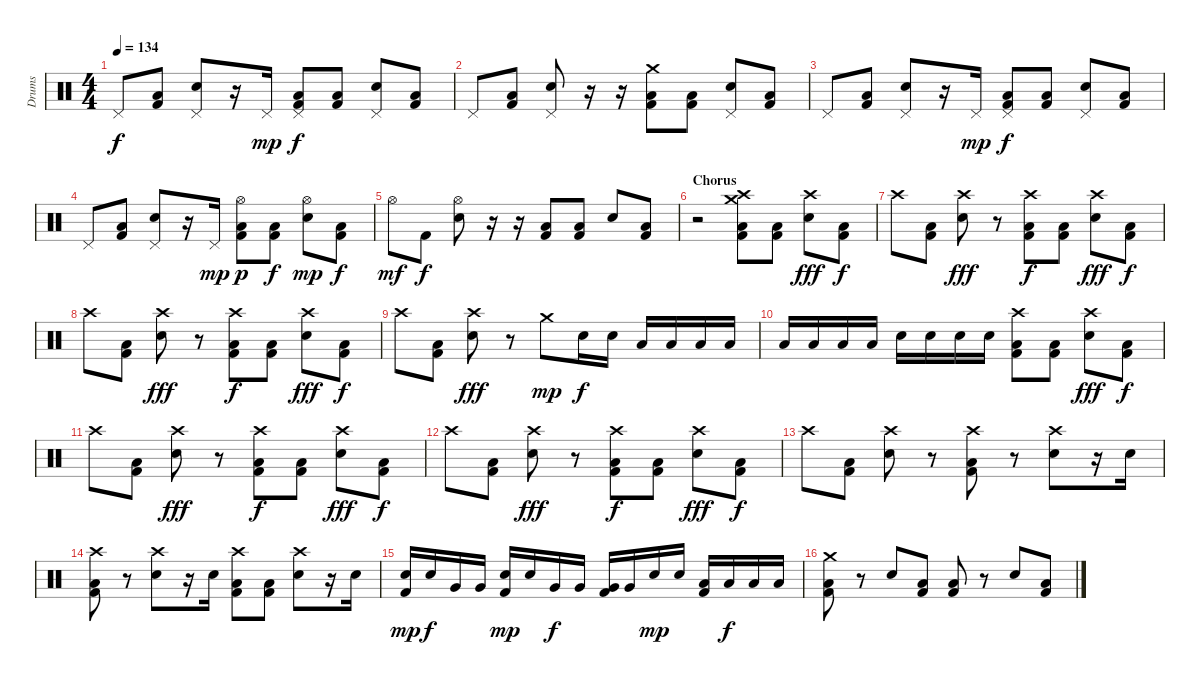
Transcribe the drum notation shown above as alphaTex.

\track ("Drums" "Drums") {instrument percussion}
\staff {score}
\articulation defaults
\ts (4 4)
\tempo 134
\clef neutral
\ks c "Pedal Hi-Hat (hit)".8{dy f}
("Kick (hit) 2" "Low Floor Tom (hit)").8 ("Pedal Hi-Hat (hit)" "Snare (hit) 2").8 r.16 "Pedal Hi-Hat (hit)".16{dy mp} ("Pedal Hi-Hat (hit)" "Kick (hit) 2" "Low Floor Tom (hit)").8{dy f} ("Kick (hit) 2" "Low Floor Tom (hit)").8 ("Pedal Hi-Hat (hit)" "Snare (hit) 2").8 ("Kick (hit) 2" "Low Floor Tom (hit)").8 |
"Pedal Hi-Hat (hit)".8 ("Kick (hit) 2" "Low Floor Tom (hit)").8 ("Pedal Hi-Hat (hit)" "Snare (hit) 2").8 r.16 r.16 ("Crash medium (hit)" "Kick (hit) 2" "Low Floor Tom (hit)").8 ("Kick (hit) 2" "Low Floor Tom (hit)").8 ("Pedal Hi-Hat (hit)" "Snare (hit) 2").8 ("Kick (hit) 2" "Low Floor Tom (hit)").8 |
"Pedal Hi-Hat (hit)".8 ("Kick (hit) 2" "Low Floor Tom (hit)").8 ("Pedal Hi-Hat (hit)" "Snare (hit) 2").8 r.16 "Pedal Hi-Hat (hit)".16{dy mp} ("Pedal Hi-Hat (hit)" "Kick (hit) 2" "Low Floor Tom (hit)").8{dy f} ("Kick (hit) 2" "Low Floor Tom (hit)").8 ("Pedal Hi-Hat (hit)" "Snare (hit) 2").8 ("Kick (hit) 2" "Low Floor Tom (hit)").8 |
"Pedal Hi-Hat (hit)".8 ("Kick (hit) 2" "Low Floor Tom (hit)").8 ("Pedal Hi-Hat (hit)" "Snare (hit) 2").8 r.16 "Pedal Hi-Hat (hit)".16{dy mp} ("Hi-Hat (open)" "Kick (hit) 2" "Low Floor Tom (hit)").8{dy p} ("Kick (hit) 2" "Low Floor Tom (hit)").8{dy f} ("Hi-Hat (open)" "Snare (hit) 2").8{dy mp} ("Kick (hit) 2" "Low Floor Tom (hit)").8{dy f} |
"Hi-Hat (open)".8{dy mf} "Kick (hit) 2".8{dy f} ("Hi-Hat (open)" "Snare (hit) 2").8 r.16 r.16 ("Kick (hit) 2" "Low Floor Tom (hit)").8 ("Kick (hit) 2" "Low Floor Tom (hit)").8 "Snare (hit) 2".8 ("Kick (hit) 2" "Low Floor Tom (hit)").8 |
\section ("" "Chorus")
r.2 ("Crash medium (hit)" "Crash high (hit)" "Kick (hit) 2" "Low Floor Tom (hit)").8 ("Kick (hit) 2" "Low Floor Tom (hit)").8 ("Crash high (hit)" "Snare (hit) 2").8{dy fff} ("Kick (hit) 2" "Low Floor Tom (hit)").8{dy f} |
"Crash high (hit)".8 ("Kick (hit) 2" "Low Floor Tom (hit)").8 ("Crash high (hit)" "Snare (hit) 2").8{dy fff} r.8 ("Crash high (hit)" "Kick (hit) 2" "Low Floor Tom (hit)").8{dy f} ("Kick (hit) 2" "Low Floor Tom (hit)").8 ("Crash high (hit)" "Snare (hit) 2").8{dy fff} ("Kick (hit) 2" "Low Floor Tom (hit)").8{dy f} |
"Crash high (hit)".8 ("Kick (hit) 2" "Low Floor Tom (hit)").8 ("Crash high (hit)" "Snare (hit) 2").8{dy fff} r.8 ("Crash high (hit)" "Kick (hit) 2" "Low Floor Tom (hit)").8{dy f} ("Kick (hit) 2" "Low Floor Tom (hit)").8 ("Crash high (hit)" "Snare (hit) 2").8{dy fff} ("Kick (hit) 2" "Low Floor Tom (hit)").8{dy f} |
"Crash high (hit)".8 ("Kick (hit) 2" "Low Floor Tom (hit)").8 ("Crash high (hit)" "Snare (hit) 2").8{dy fff} r.8 "Crash medium (hit)".8{dy mp} "Snare (hit) 2".16{dy f} "Snare (hit) 2".16 "Low Floor Tom (hit)".16 "Low Floor Tom (hit)".16 "Low Floor Tom (hit)".16 "Low Floor Tom (hit)".16 |
"Low Floor Tom (hit)".16 "Low Floor Tom (hit)".16 "Low Floor Tom (hit)".16 "Low Floor Tom (hit)".16 "Snare (hit) 2".16 "Snare (hit) 2".16 "Snare (hit) 2".16 "Snare (hit) 2".16 ("Crash high (hit)" "Kick (hit) 2" "Low Floor Tom (hit)").8 ("Kick (hit) 2" "Low Floor Tom (hit)").8 ("Crash high (hit)" "Snare (hit) 2").8{dy fff} ("Kick (hit) 2" "Low Floor Tom (hit)").8{dy f} |
"Crash high (hit)".8 ("Kick (hit) 2" "Low Floor Tom (hit)").8 ("Crash high (hit)" "Snare (hit) 2").8{dy fff} r.8 ("Crash high (hit)" "Kick (hit) 2" "Low Floor Tom (hit)").8{dy f} ("Kick (hit) 2" "Low Floor Tom (hit)").8 ("Crash high (hit)" "Snare (hit) 2").8{dy fff} ("Kick (hit) 2" "Low Floor Tom (hit)").8{dy f} |
"Crash high (hit)".8 ("Kick (hit) 2" "Low Floor Tom (hit)").8 ("Crash high (hit)" "Snare (hit) 2").8{dy fff} r.8 ("Crash high (hit)" "Kick (hit) 2" "Low Floor Tom (hit)").8{dy f} ("Kick (hit) 2" "Low Floor Tom (hit)").8 ("Crash high (hit)" "Snare (hit) 2").8{dy fff} ("Kick (hit) 2" "Low Floor Tom (hit)").8{dy f} |
"Crash high (hit)".8 ("Kick (hit) 2" "Low Floor Tom (hit)").8 ("Crash high (hit)" "Snare (hit) 2").8 r.8 ("Crash high (hit)" "Kick (hit) 2" "Low Floor Tom (hit)").8 r.8 ("Crash high (hit)" "Snare (hit) 2").8 r.16 "Snare (hit) 2".16 |
("Crash high (hit)" "Kick (hit) 2" "Low Floor Tom (hit)").8 r.8 ("Crash high (hit)" "Snare (hit) 2").8 r.16 "Snare (hit) 2".16 ("Crash high (hit)" "Kick (hit) 2" "Low Floor Tom (hit)").8 ("Kick (hit) 2" "Low Floor Tom (hit)").8 ("Crash high (hit)" "Snare (hit) 2").8 r.16 "Snare (hit) 2".16 |
("Snare (hit) 2" "Kick (hit) 2").16{dy mp} "Snare (hit) 2".16{dy f} "Very Low Tom (hit)".16 "Very Low Tom (hit)".16 ("Snare (hit) 2" "Kick (hit) 2").16{dy mp} "Snare (hit) 2".16 "Very Low Tom (hit)".16{dy f} "Very Low Tom (hit)".16 ("Very Low Tom (hit)" "Kick (hit) 2").16 "Very Low Tom (hit)".16 "Snare (hit) 2".16{dy mp} "Snare (hit) 2".16 ("Low Floor Tom (hit)" "Kick (hit) 2").16 "Low Floor Tom (hit)".16{dy f} "Low Floor Tom (hit)".16 "Low Floor Tom (hit)".16 |
("Crash medium (hit)" "Kick (hit) 2" "Low Floor Tom (hit)").8 r.8 "Snare (hit) 2".8 ("Kick (hit) 2" "Low Floor Tom (hit)").8 ("Kick (hit) 2" "Low Floor Tom (hit)").8 r.8 "Snare (hit) 2".8 ("Kick (hit) 2" "Low Floor Tom (hit)").8
